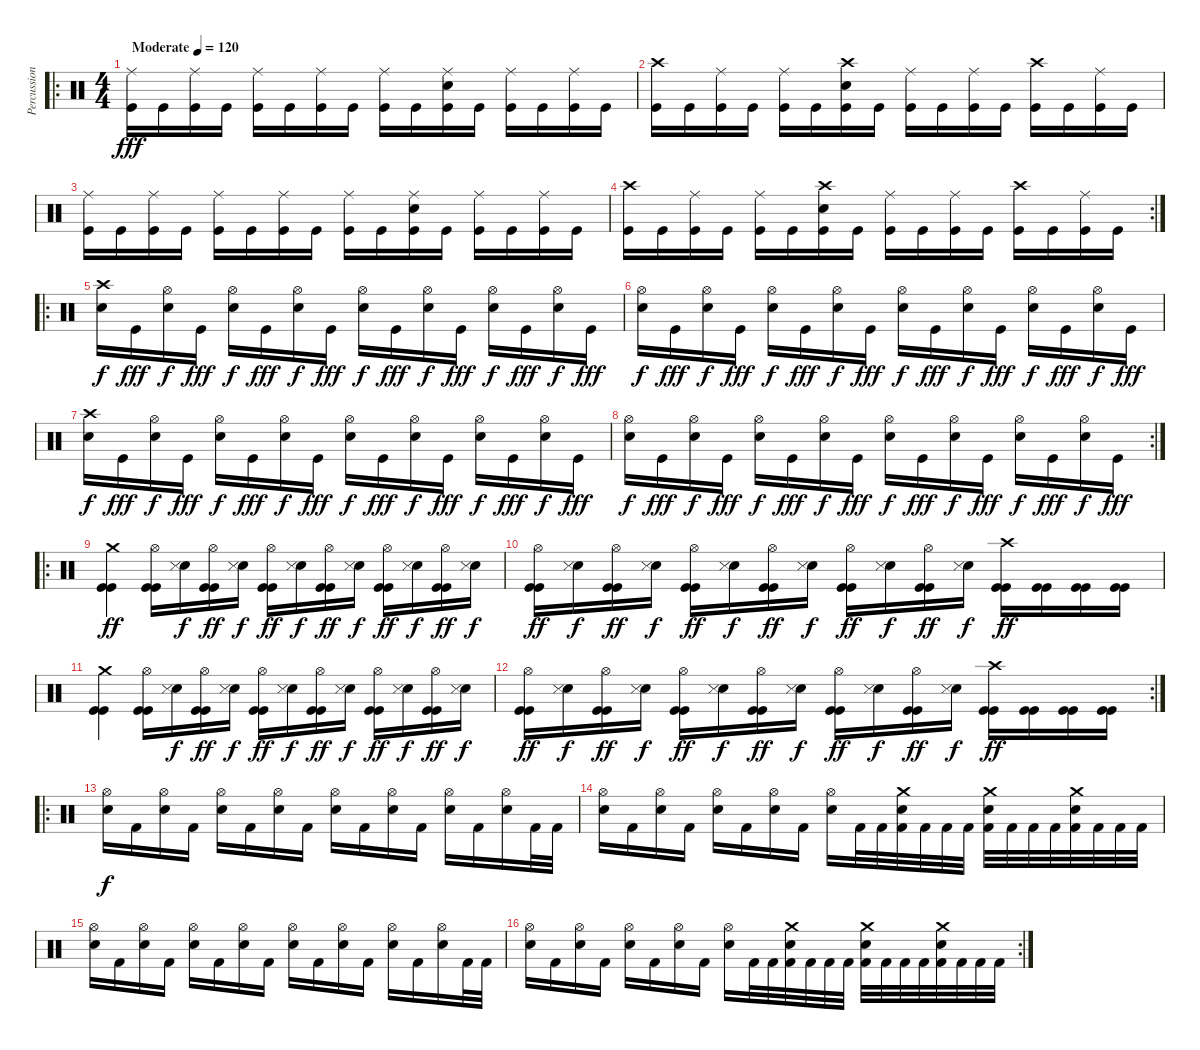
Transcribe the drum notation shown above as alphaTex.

\track ("Percussions" "Percussion") {instrument percussion}
\staff {score}
\articulation defaults
\ro
\ts (4 4)
\tempo (120 "Moderate")
\clef neutral
\ks c
("Ride (middle)" "Kick (hit)").16{dy fff} "Kick (hit)".16 ("Ride (middle)" "Kick (hit)").16 "Kick (hit)".16 ("Ride (middle)" "Kick (hit)").16 "Kick (hit)".16 ("Ride (middle)" "Kick (hit)").16 "Kick (hit)".16 ("Ride (middle)" "Kick (hit)").16 "Kick (hit)".16 ("Ride (middle)" "Electric Snare (hit)" "Kick (hit)").16 "Kick (hit)".16 ("Ride (middle)" "Kick (hit)").16 "Kick (hit)".16 ("Ride (middle)" "Kick (hit)").16 "Kick (hit)".16 |
("Crash high (hit)" "Kick (hit)").16 "Kick (hit)".16 ("Ride (middle)" "Kick (hit)").16 "Kick (hit)".16 ("Ride (middle)" "Kick (hit)").16 "Kick (hit)".16 ("Crash high (hit)" "Electric Snare (hit)" "Kick (hit)").16 "Kick (hit)".16 ("Ride (middle)" "Kick (hit)").16 "Kick (hit)".16 ("Ride (middle)" "Kick (hit)").16 "Kick (hit)".16 ("Crash high (hit)" "Kick (hit)").16 "Kick (hit)".16 ("Ride (middle)" "Kick (hit)").16 "Kick (hit)".16 |
("Ride (middle)" "Kick (hit)").16 "Kick (hit)".16 ("Ride (middle)" "Kick (hit)").16 "Kick (hit)".16 ("Ride (middle)" "Kick (hit)").16 "Kick (hit)".16 ("Ride (middle)" "Kick (hit)").16 "Kick (hit)".16 ("Ride (middle)" "Kick (hit)").16 "Kick (hit)".16 ("Ride (middle)" "Electric Snare (hit)" "Kick (hit)").16 "Kick (hit)".16 ("Ride (middle)" "Kick (hit)").16 "Kick (hit)".16 ("Ride (middle)" "Kick (hit)").16 "Kick (hit)".16 |
\rc 2
("Crash high (hit)" "Kick (hit)").16 "Kick (hit)".16 ("Ride (middle)" "Kick (hit)").16 "Kick (hit)".16 ("Ride (middle)" "Kick (hit)").16 "Kick (hit)".16 ("Crash high (hit)" "Electric Snare (hit)" "Kick (hit)").16 "Kick (hit)".16 ("Ride (middle)" "Kick (hit)").16 "Kick (hit)".16 ("Ride (middle)" "Kick (hit)").16 "Kick (hit)".16 ("Crash high (hit)" "Kick (hit)").16 "Kick (hit)".16 ("Ride (middle)" "Kick (hit)").16 "Kick (hit)".16 |
\ro
("Crash high (hit)" "Electric Snare (hit)").16{dy f} "Kick (hit)".16{dy fff} ("Hi-Hat (open)" "Electric Snare (hit)").16{dy f} "Kick (hit)".16{dy fff} ("Hi-Hat (open)" "Electric Snare (hit)").16{dy f} "Kick (hit)".16{dy fff} ("Hi-Hat (open)" "Electric Snare (hit)").16{dy f} "Kick (hit)".16{dy fff} ("Hi-Hat (open)" "Electric Snare (hit)").16{dy f} "Kick (hit)".16{dy fff} ("Hi-Hat (open)" "Electric Snare (hit)").16{dy f} "Kick (hit)".16{dy fff} ("Hi-Hat (open)" "Electric Snare (hit)").16{dy f} "Kick (hit)".16{dy fff} ("Hi-Hat (open)" "Electric Snare (hit)").16{dy f} "Kick (hit)".16{dy fff} |
("Hi-Hat (open)" "Electric Snare (hit)").16{dy f} "Kick (hit)".16{dy fff} ("Hi-Hat (open)" "Electric Snare (hit)").16{dy f} "Kick (hit)".16{dy fff} ("Hi-Hat (open)" "Electric Snare (hit)").16{dy f} "Kick (hit)".16{dy fff} ("Hi-Hat (open)" "Electric Snare (hit)").16{dy f} "Kick (hit)".16{dy fff} ("Hi-Hat (open)" "Electric Snare (hit)").16{dy f} "Kick (hit)".16{dy fff} ("Hi-Hat (open)" "Electric Snare (hit)").16{dy f} "Kick (hit)".16{dy fff} ("Hi-Hat (open)" "Electric Snare (hit)").16{dy f} "Kick (hit)".16{dy fff} ("Hi-Hat (open)" "Electric Snare (hit)").16{dy f} "Kick (hit)".16{dy fff} |
("Crash high (hit)" "Electric Snare (hit)").16{dy f} "Kick (hit)".16{dy fff} ("Hi-Hat (open)" "Electric Snare (hit)").16{dy f} "Kick (hit)".16{dy fff} ("Hi-Hat (open)" "Electric Snare (hit)").16{dy f} "Kick (hit)".16{dy fff} ("Hi-Hat (open)" "Electric Snare (hit)").16{dy f} "Kick (hit)".16{dy fff} ("Hi-Hat (open)" "Electric Snare (hit)").16{dy f} "Kick (hit)".16{dy fff} ("Hi-Hat (open)" "Electric Snare (hit)").16{dy f} "Kick (hit)".16{dy fff} ("Hi-Hat (open)" "Electric Snare (hit)").16{dy f} "Kick (hit)".16{dy fff} ("Hi-Hat (open)" "Electric Snare (hit)").16{dy f} "Kick (hit)".16{dy fff} |
\rc 2
("Hi-Hat (open)" "Electric Snare (hit)").16{dy f} "Kick (hit)".16{dy fff} ("Hi-Hat (open)" "Electric Snare (hit)").16{dy f} "Kick (hit)".16{dy fff} ("Hi-Hat (open)" "Electric Snare (hit)").16{dy f} "Kick (hit)".16{dy fff} ("Hi-Hat (open)" "Electric Snare (hit)").16{dy f} "Kick (hit)".16{dy fff} ("Hi-Hat (open)" "Electric Snare (hit)").16{dy f} "Kick (hit)".16{dy fff} ("Hi-Hat (open)" "Electric Snare (hit)").16{dy f} "Kick (hit)".16{dy fff} ("Hi-Hat (open)" "Electric Snare (hit)").16{dy f} "Kick (hit)".16{dy fff} ("Hi-Hat (open)" "Electric Snare (hit)").16{dy f} "Kick (hit)".16{dy fff} |
\ro
("Crash medium (hit)" "Kick (hit)" "Kick (hit)").4{dy ff} ("Hi-Hat (open)" "Kick (hit)" "Kick (hit)").16 ("Electric Snare (hit)" "Snare (side stick) 3").16{dy f} ("Hi-Hat (open)" "Kick (hit)" "Kick (hit)").16{dy ff} ("Electric Snare (hit)" "Snare (side stick) 3").16{dy f} ("Hi-Hat (open)" "Kick (hit)" "Kick (hit)").16{dy ff} ("Electric Snare (hit)" "Snare (side stick) 3").16{dy f} ("Hi-Hat (open)" "Kick (hit)" "Kick (hit)").16{dy ff} ("Electric Snare (hit)" "Snare (side stick) 3").16{dy f} ("Hi-Hat (open)" "Kick (hit)" "Kick (hit)").16{dy ff} ("Electric Snare (hit)" "Snare (side stick) 3").16{dy f} ("Hi-Hat (open)" "Kick (hit)" "Kick (hit)").16{dy ff} ("Electric Snare (hit)" "Snare (side stick) 3").16{dy f} |
("Hi-Hat (open)" "Kick (hit)" "Kick (hit)").16{dy ff} ("Electric Snare (hit)" "Snare (side stick) 3").16{dy f} ("Hi-Hat (open)" "Kick (hit)" "Kick (hit)").16{dy ff} ("Electric Snare (hit)" "Snare (side stick) 3").16{dy f} ("Hi-Hat (open)" "Kick (hit)" "Kick (hit)").16{dy ff} ("Electric Snare (hit)" "Snare (side stick) 3").16{dy f} ("Hi-Hat (open)" "Kick (hit)" "Kick (hit)").16{dy ff} ("Electric Snare (hit)" "Snare (side stick) 3").16{dy f} ("Hi-Hat (open)" "Kick (hit)" "Kick (hit)").16{dy ff} ("Electric Snare (hit)" "Snare (side stick) 3").16{dy f} ("Hi-Hat (open)" "Kick (hit)" "Kick (hit)").16{dy ff} ("Electric Snare (hit)" "Snare (side stick) 3").16{dy f} ("Crash high (hit)" "Kick (hit)" "Kick (hit)").16{dy ff} ("Kick (hit)" "Kick (hit)").16 ("Kick (hit)" "Kick (hit)").16 ("Kick (hit)" "Kick (hit)").16 |
("Crash medium (hit)" "Kick (hit)" "Kick (hit)").4 ("Hi-Hat (open)" "Kick (hit)" "Kick (hit)").16 ("Electric Snare (hit)" "Snare (side stick) 3").16{dy f} ("Hi-Hat (open)" "Kick (hit)" "Kick (hit)").16{dy ff} ("Electric Snare (hit)" "Snare (side stick) 3").16{dy f} ("Hi-Hat (open)" "Kick (hit)" "Kick (hit)").16{dy ff} ("Electric Snare (hit)" "Snare (side stick) 3").16{dy f} ("Hi-Hat (open)" "Kick (hit)" "Kick (hit)").16{dy ff} ("Electric Snare (hit)" "Snare (side stick) 3").16{dy f} ("Hi-Hat (open)" "Kick (hit)" "Kick (hit)").16{dy ff} ("Electric Snare (hit)" "Snare (side stick) 3").16{dy f} ("Hi-Hat (open)" "Kick (hit)" "Kick (hit)").16{dy ff} ("Electric Snare (hit)" "Snare (side stick) 3").16{dy f} |
\rc 2
("Hi-Hat (open)" "Kick (hit)" "Kick (hit)").16{dy ff} ("Electric Snare (hit)" "Snare (side stick) 3").16{dy f} ("Hi-Hat (open)" "Kick (hit)" "Kick (hit)").16{dy ff} ("Electric Snare (hit)" "Snare (side stick) 3").16{dy f} ("Hi-Hat (open)" "Kick (hit)" "Kick (hit)").16{dy ff} ("Electric Snare (hit)" "Snare (side stick) 3").16{dy f} ("Hi-Hat (open)" "Kick (hit)" "Kick (hit)").16{dy ff} ("Electric Snare (hit)" "Snare (side stick) 3").16{dy f} ("Hi-Hat (open)" "Kick (hit)" "Kick (hit)").16{dy ff} ("Electric Snare (hit)" "Snare (side stick) 3").16{dy f} ("Hi-Hat (open)" "Kick (hit)" "Kick (hit)").16{dy ff} ("Electric Snare (hit)" "Snare (side stick) 3").16{dy f} ("Crash high (hit)" "Kick (hit)" "Kick (hit)").16{dy ff} ("Kick (hit)" "Kick (hit)").16 ("Kick (hit)" "Kick (hit)").16 ("Kick (hit)" "Kick (hit)").16 |
\ro
("Hi-Hat (open)" "Snare (hit) 2").16{dy f} "Kick (hit) 2".16 ("Hi-Hat (open)" "Snare (hit) 2").16 "Kick (hit) 2".16 ("Hi-Hat (open)" "Snare (hit) 2").16 "Kick (hit) 2".16 ("Hi-Hat (open)" "Snare (hit) 2").16 "Kick (hit) 2".16 ("Hi-Hat (open)" "Snare (hit) 2").16 "Kick (hit) 2".16 ("Hi-Hat (open)" "Snare (hit) 2").16 "Kick (hit) 2".16 ("Hi-Hat (open)" "Snare (hit) 2").16 "Kick (hit) 2".16 ("Hi-Hat (open)" "Snare (hit) 2").16 "Kick (hit) 2".32 "Kick (hit) 2".32 |
("Hi-Hat (open)" "Snare (hit) 2").16 "Kick (hit) 2".16 ("Hi-Hat (open)" "Snare (hit) 2").16 "Kick (hit) 2".16 ("Hi-Hat (open)" "Snare (hit) 2").16 "Kick (hit) 2".16 ("Hi-Hat (open)" "Snare (hit) 2").16 "Kick (hit) 2".16 ("Hi-Hat (open)" "Snare (hit) 2").16 "Kick (hit) 2".32 "Kick (hit) 2".32 ("Crash medium (hit)" "Snare (hit) 2" "Kick (hit) 2").32 "Kick (hit) 2".32 "Kick (hit) 2".32 "Kick (hit) 2".32 ("Crash medium (hit)" "Snare (hit) 2" "Kick (hit) 2").32 "Kick (hit) 2".32 "Kick (hit) 2".32 "Kick (hit) 2".32 ("Crash medium (hit)" "Snare (hit) 2" "Kick (hit) 2").32 "Kick (hit) 2".32 "Kick (hit) 2".32 "Kick (hit) 2".32 |
("Hi-Hat (open)" "Snare (hit) 2").16 "Kick (hit) 2".16 ("Hi-Hat (open)" "Snare (hit) 2").16 "Kick (hit) 2".16 ("Hi-Hat (open)" "Snare (hit) 2").16 "Kick (hit) 2".16 ("Hi-Hat (open)" "Snare (hit) 2").16 "Kick (hit) 2".16 ("Hi-Hat (open)" "Snare (hit) 2").16 "Kick (hit) 2".16 ("Hi-Hat (open)" "Snare (hit) 2").16 "Kick (hit) 2".16 ("Hi-Hat (open)" "Snare (hit) 2").16 "Kick (hit) 2".16 ("Hi-Hat (open)" "Snare (hit) 2").16 "Kick (hit) 2".32 "Kick (hit) 2".32 |
\rc 2
("Hi-Hat (open)" "Snare (hit) 2").16 "Kick (hit) 2".16 ("Hi-Hat (open)" "Snare (hit) 2").16 "Kick (hit) 2".16 ("Hi-Hat (open)" "Snare (hit) 2").16 "Kick (hit) 2".16 ("Hi-Hat (open)" "Snare (hit) 2").16 "Kick (hit) 2".16 ("Hi-Hat (open)" "Snare (hit) 2").16 "Kick (hit) 2".32 "Kick (hit) 2".32 ("Crash medium (hit)" "Snare (hit) 2" "Kick (hit) 2").32 "Kick (hit) 2".32 "Kick (hit) 2".32 "Kick (hit) 2".32 ("Crash medium (hit)" "Snare (hit) 2" "Kick (hit) 2").32 "Kick (hit) 2".32 "Kick (hit) 2".32 "Kick (hit) 2".32 ("Crash medium (hit)" "Snare (hit) 2" "Kick (hit) 2").32 "Kick (hit) 2".32 "Kick (hit) 2".32 "Kick (hit) 2".32
